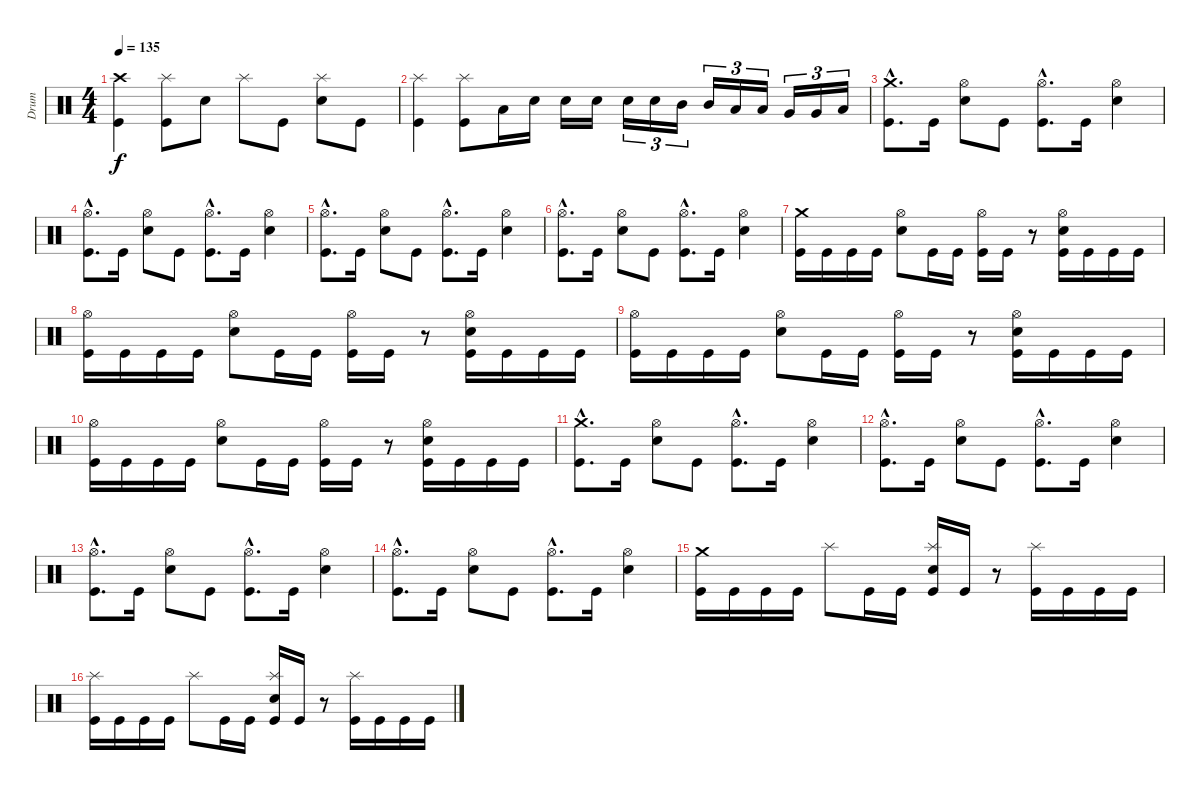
\track ("Drum" "Drum") {instrument percussion}
\staff {score}
\articulation defaults
\ts (4 4)
\tempo 135
\clef neutral
\ks c
("Kick (hit)" "Crash high (hit)").4{dy f} ("Kick (hit)" "Splash (hit)").8 "Electric Snare (hit)".8 "Splash (hit)".8 "Kick (hit)".8 ("Electric Snare (hit)" "Splash (hit)").8 "Kick (hit)".8 |
("Kick (hit)" "Splash (hit)").4 ("Kick (hit)" "Splash (hit)").8 "Low Tom (hit)".16 "Electric Snare (hit)".16 "Electric Snare (hit)".16 "Electric Snare (hit)".16 "Electric Snare (hit)".16{tu (3 2)} "Electric Snare (hit)".16{tu (3 2)} "Mid Tom (hit)".16{tu (3 2)} "Mid Tom (hit)".16{tu (3 2)} "Low Tom (hit)".16{tu (3 2)} "Low Tom (hit)".16{tu (3 2)} "Very Low Tom (hit)".16{tu (3 2)} "Very Low Tom (hit)".16{tu (3 2)} "Low Floor Tom (hit)".16{tu (3 2)} |
("Kick (hit)"{hac} "Crash medium (hit)"{hac}).8{d} "Kick (hit)".16 ("Electric Snare (hit)" "Hi-Hat (open)").8 "Kick (hit)".8 ("Kick (hit)"{hac} "Hi-Hat (open)"{hac}).8{d} "Kick (hit)".16 ("Electric Snare (hit)" "Hi-Hat (open)").4 |
("Kick (hit)"{hac} "Hi-Hat (open)"{hac}).8{d} "Kick (hit)".16 ("Electric Snare (hit)" "Hi-Hat (open)").8 "Kick (hit)".8 ("Kick (hit)"{hac} "Hi-Hat (open)"{hac}).8{d} "Kick (hit)".16 ("Electric Snare (hit)" "Hi-Hat (open)").4 |
("Kick (hit)"{hac} "Hi-Hat (open)"{hac}).8{d} "Kick (hit)".16 ("Electric Snare (hit)" "Hi-Hat (open)").8 "Kick (hit)".8 ("Kick (hit)"{hac} "Hi-Hat (open)"{hac}).8{d} "Kick (hit)".16 ("Electric Snare (hit)" "Hi-Hat (open)").4 |
("Kick (hit)"{hac} "Hi-Hat (open)"{hac}).8{d} "Kick (hit)".16 ("Electric Snare (hit)" "Hi-Hat (open)").8 "Kick (hit)".8 ("Kick (hit)"{hac} "Hi-Hat (open)"{hac}).8{d} "Kick (hit)".16 ("Electric Snare (hit)" "Hi-Hat (open)").4 |
("Kick (hit)" "Crash medium (hit)").16 "Kick (hit)".16 "Kick (hit)".16 "Kick (hit)".16 ("Electric Snare (hit)" "Hi-Hat (open)").8 "Kick (hit)".16 "Kick (hit)".16 ("Kick (hit)" "Hi-Hat (open)").16 "Kick (hit)".16 r.8 ("Kick (hit)" "Electric Snare (hit)" "Hi-Hat (open)").16 "Kick (hit)".16 "Kick (hit)".16 "Kick (hit)".16 |
("Kick (hit)" "Hi-Hat (open)").16 "Kick (hit)".16 "Kick (hit)".16 "Kick (hit)".16 ("Electric Snare (hit)" "Hi-Hat (open)").8 "Kick (hit)".16 "Kick (hit)".16 ("Kick (hit)" "Hi-Hat (open)").16 "Kick (hit)".16 r.8 ("Kick (hit)" "Electric Snare (hit)" "Hi-Hat (open)").16 "Kick (hit)".16 "Kick (hit)".16 "Kick (hit)".16 |
("Kick (hit)" "Hi-Hat (open)").16 "Kick (hit)".16 "Kick (hit)".16 "Kick (hit)".16 ("Electric Snare (hit)" "Hi-Hat (open)").8 "Kick (hit)".16 "Kick (hit)".16 ("Kick (hit)" "Hi-Hat (open)").16 "Kick (hit)".16 r.8 ("Kick (hit)" "Electric Snare (hit)" "Hi-Hat (open)").16 "Kick (hit)".16 "Kick (hit)".16 "Kick (hit)".16 |
("Kick (hit)" "Hi-Hat (open)").16 "Kick (hit)".16 "Kick (hit)".16 "Kick (hit)".16 ("Electric Snare (hit)" "Hi-Hat (open)").8 "Kick (hit)".16 "Kick (hit)".16 ("Kick (hit)" "Hi-Hat (open)").16 "Kick (hit)".16 r.8 ("Kick (hit)" "Electric Snare (hit)" "Hi-Hat (open)").16 "Kick (hit)".16 "Kick (hit)".16 "Kick (hit)".16 |
("Kick (hit)"{hac} "Crash medium (hit)"{hac}).8{d} "Kick (hit)".16 ("Electric Snare (hit)" "Hi-Hat (open)").8 "Kick (hit)".8 ("Kick (hit)"{hac} "Hi-Hat (open)"{hac}).8{d} "Kick (hit)".16 ("Electric Snare (hit)" "Hi-Hat (open)").4 |
("Kick (hit)"{hac} "Hi-Hat (open)"{hac}).8{d} "Kick (hit)".16 ("Electric Snare (hit)" "Hi-Hat (open)").8 "Kick (hit)".8 ("Kick (hit)"{hac} "Hi-Hat (open)"{hac}).8{d} "Kick (hit)".16 ("Electric Snare (hit)" "Hi-Hat (open)").4 |
("Kick (hit)"{hac} "Hi-Hat (open)"{hac}).8{d} "Kick (hit)".16 ("Electric Snare (hit)" "Hi-Hat (open)").8 "Kick (hit)".8 ("Kick (hit)"{hac} "Hi-Hat (open)"{hac}).8{d} "Kick (hit)".16 ("Electric Snare (hit)" "Hi-Hat (open)").4 |
("Kick (hit)"{hac} "Hi-Hat (open)"{hac}).8{d} "Kick (hit)".16 ("Electric Snare (hit)" "Hi-Hat (open)").8 "Kick (hit)".8 ("Kick (hit)"{hac} "Hi-Hat (open)"{hac}).8{d} "Kick (hit)".16 ("Electric Snare (hit)" "Hi-Hat (open)").4 |
("Kick (hit)" "Crash medium (hit)").16 "Kick (hit)".16 "Kick (hit)".16 "Kick (hit)".16 "Splash (hit)".8 "Kick (hit)".16 "Kick (hit)".16 ("Kick (hit)" "Electric Snare (hit)" "Splash (hit)").16 "Kick (hit)".16 r.8 ("Kick (hit)" "Splash (hit)").16 "Kick (hit)".16 "Kick (hit)".16 "Kick (hit)".16 |
("Kick (hit)" "Splash (hit)").16 "Kick (hit)".16 "Kick (hit)".16 "Kick (hit)".16 "Splash (hit)".8 "Kick (hit)".16 "Kick (hit)".16 ("Kick (hit)" "Electric Snare (hit)" "Splash (hit)").16 "Kick (hit)".16 r.8 ("Kick (hit)" "Splash (hit)").16 "Kick (hit)".16 "Kick (hit)".16 "Kick (hit)".16
